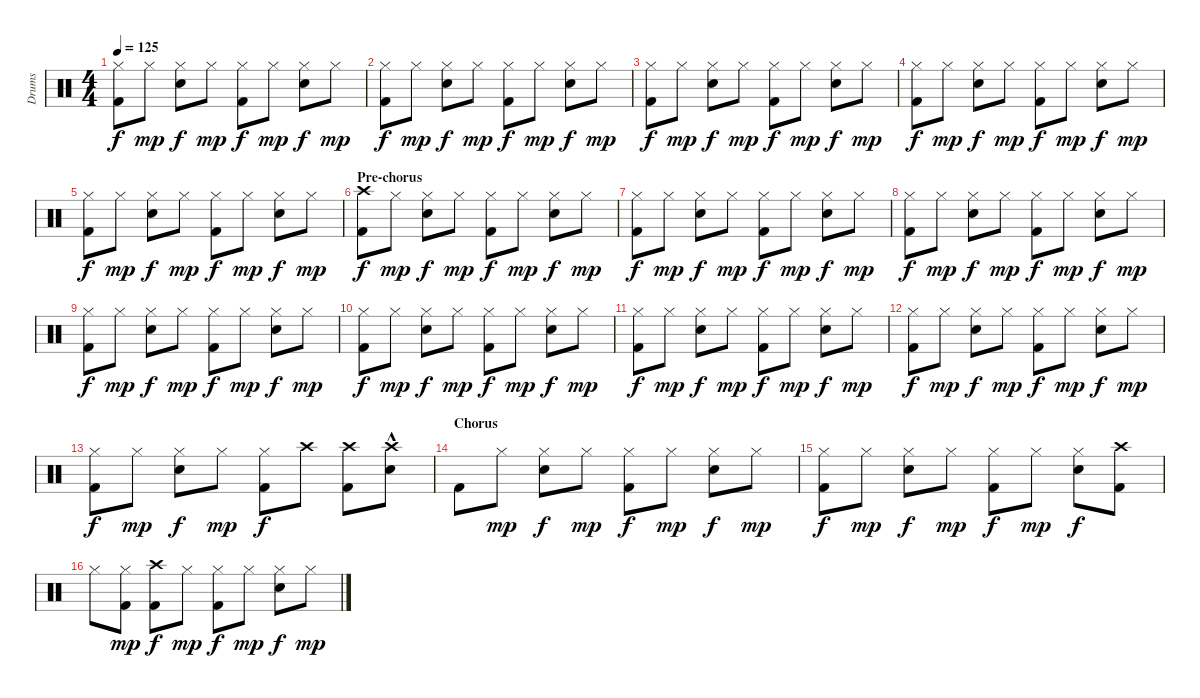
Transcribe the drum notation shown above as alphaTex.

\track ("Drums" "Drums") {instrument percussion}
\staff {score}
\articulation defaults
\ts (4 4)
\tempo 125
\clef neutral
\ks c
("Hi-Hat (closed)" "Kick (hit) 2").8{dy f} "Hi-Hat (closed)".8{dy mp} ("Hi-Hat (closed)" "Snare (hit) 2").8{dy f} "Hi-Hat (closed)".8{dy mp} ("Hi-Hat (closed)" "Kick (hit) 2").8{dy f} "Hi-Hat (closed)".8{dy mp} ("Hi-Hat (closed)" "Snare (hit) 2").8{dy f} "Hi-Hat (closed)".8{dy mp} |
("Hi-Hat (closed)" "Kick (hit) 2").8{dy f} "Hi-Hat (closed)".8{dy mp} ("Hi-Hat (closed)" "Snare (hit) 2").8{dy f} "Hi-Hat (closed)".8{dy mp} ("Hi-Hat (closed)" "Kick (hit) 2").8{dy f} "Hi-Hat (closed)".8{dy mp} ("Hi-Hat (closed)" "Snare (hit) 2").8{dy f} "Hi-Hat (closed)".8{dy mp} |
("Hi-Hat (closed)" "Kick (hit) 2").8{dy f} "Hi-Hat (closed)".8{dy mp} ("Hi-Hat (closed)" "Snare (hit) 2").8{dy f} "Hi-Hat (closed)".8{dy mp} ("Hi-Hat (closed)" "Kick (hit) 2").8{dy f} "Hi-Hat (closed)".8{dy mp} ("Hi-Hat (closed)" "Snare (hit) 2").8{dy f} "Hi-Hat (closed)".8{dy mp} |
("Hi-Hat (closed)" "Kick (hit) 2").8{dy f} "Hi-Hat (closed)".8{dy mp} ("Hi-Hat (closed)" "Snare (hit) 2").8{dy f} "Hi-Hat (closed)".8{dy mp} ("Hi-Hat (closed)" "Kick (hit) 2").8{dy f} "Hi-Hat (closed)".8{dy mp} ("Hi-Hat (closed)" "Snare (hit) 2").8{dy f} "Hi-Hat (closed)".8{dy mp} |
("Hi-Hat (closed)" "Kick (hit) 2").8{dy f} "Hi-Hat (closed)".8{dy mp} ("Hi-Hat (closed)" "Snare (hit) 2").8{dy f} "Hi-Hat (closed)".8{dy mp} ("Hi-Hat (closed)" "Kick (hit) 2").8{dy f} "Hi-Hat (closed)".8{dy mp} ("Hi-Hat (closed)" "Snare (hit) 2").8{dy f} "Hi-Hat (closed)".8{dy mp} |
\section ("" "Pre-chorus")
("Crash high (hit)" "Kick (hit) 2").8{dy f} "Hi-Hat (closed)".8{dy mp} ("Hi-Hat (closed)" "Snare (hit) 2").8{dy f} "Hi-Hat (closed)".8{dy mp} ("Hi-Hat (closed)" "Kick (hit) 2").8{dy f} "Hi-Hat (closed)".8{dy mp} ("Hi-Hat (closed)" "Snare (hit) 2").8{dy f} "Hi-Hat (closed)".8{dy mp} |
("Hi-Hat (closed)" "Kick (hit) 2").8{dy f} "Hi-Hat (closed)".8{dy mp} ("Hi-Hat (closed)" "Snare (hit) 2").8{dy f} "Hi-Hat (closed)".8{dy mp} ("Hi-Hat (closed)" "Kick (hit) 2").8{dy f} "Hi-Hat (closed)".8{dy mp} ("Hi-Hat (closed)" "Snare (hit) 2").8{dy f} "Hi-Hat (closed)".8{dy mp} |
("Hi-Hat (closed)" "Kick (hit) 2").8{dy f} "Hi-Hat (closed)".8{dy mp} ("Hi-Hat (closed)" "Snare (hit) 2").8{dy f} "Hi-Hat (closed)".8{dy mp} ("Hi-Hat (closed)" "Kick (hit) 2").8{dy f} "Hi-Hat (closed)".8{dy mp} ("Hi-Hat (closed)" "Snare (hit) 2").8{dy f} "Hi-Hat (closed)".8{dy mp} |
("Hi-Hat (closed)" "Kick (hit) 2").8{dy f} "Hi-Hat (closed)".8{dy mp} ("Hi-Hat (closed)" "Snare (hit) 2").8{dy f} "Hi-Hat (closed)".8{dy mp} ("Hi-Hat (closed)" "Kick (hit) 2").8{dy f} "Hi-Hat (closed)".8{dy mp} ("Hi-Hat (closed)" "Snare (hit) 2").8{dy f} "Hi-Hat (closed)".8{dy mp} |
("Hi-Hat (closed)" "Kick (hit) 2").8{dy f} "Hi-Hat (closed)".8{dy mp} ("Hi-Hat (closed)" "Snare (hit) 2").8{dy f} "Hi-Hat (closed)".8{dy mp} ("Hi-Hat (closed)" "Kick (hit) 2").8{dy f} "Hi-Hat (closed)".8{dy mp} ("Hi-Hat (closed)" "Snare (hit) 2").8{dy f} "Hi-Hat (closed)".8{dy mp} |
("Hi-Hat (closed)" "Kick (hit) 2").8{dy f} "Hi-Hat (closed)".8{dy mp} ("Hi-Hat (closed)" "Snare (hit) 2").8{dy f} "Hi-Hat (closed)".8{dy mp} ("Hi-Hat (closed)" "Kick (hit) 2").8{dy f} "Hi-Hat (closed)".8{dy mp} ("Hi-Hat (closed)" "Snare (hit) 2").8{dy f} "Hi-Hat (closed)".8{dy mp} |
("Hi-Hat (closed)" "Kick (hit) 2").8{dy f} "Hi-Hat (closed)".8{dy mp} ("Hi-Hat (closed)" "Snare (hit) 2").8{dy f} "Hi-Hat (closed)".8{dy mp} ("Hi-Hat (closed)" "Kick (hit) 2").8{dy f} "Hi-Hat (closed)".8{dy mp} ("Hi-Hat (closed)" "Snare (hit) 2").8{dy f} "Hi-Hat (closed)".8{dy mp} |
("Hi-Hat (closed)" "Kick (hit) 2").8{dy f} "Hi-Hat (closed)".8{dy mp} ("Hi-Hat (closed)" "Snare (hit) 2").8{dy f} "Hi-Hat (closed)".8{dy mp} ("Hi-Hat (closed)" "Kick (hit) 2").8{dy f} "Crash high (hit)".8 ("Crash high (hit)" "Kick (hit) 2").8 ("Crash high (hit)"{hac} "Snare (hit) 2").8 |
\section ("" "Chorus")
"Kick (hit) 2".8 "Hi-Hat (closed)".8{dy mp} ("Hi-Hat (closed)" "Snare (hit) 2").8{dy f} "Hi-Hat (closed)".8{dy mp} ("Hi-Hat (closed)" "Kick (hit) 2").8{dy f} "Hi-Hat (closed)".8{dy mp} ("Hi-Hat (closed)" "Snare (hit) 2").8{dy f} "Hi-Hat (closed)".8{dy mp} |
("Hi-Hat (closed)" "Kick (hit) 2").8{dy f} "Hi-Hat (closed)".8{dy mp} ("Hi-Hat (closed)" "Snare (hit) 2").8{dy f} "Hi-Hat (closed)".8{dy mp} ("Hi-Hat (closed)" "Kick (hit) 2").8{dy f} "Hi-Hat (closed)".8{dy mp} ("Hi-Hat (closed)" "Snare (hit) 2").8{dy f} ("Crash high (hit)" "Kick (hit) 2").8 |
"Hi-Hat (closed)".8 ("Hi-Hat (closed)" "Kick (hit) 2").8{dy mp} ("Crash high (hit)" "Kick (hit) 2").8{dy f} "Hi-Hat (closed)".8{dy mp} ("Hi-Hat (closed)" "Kick (hit) 2").8{dy f} "Hi-Hat (closed)".8{dy mp} ("Hi-Hat (closed)" "Snare (hit) 2").8{dy f} "Hi-Hat (closed)".8{dy mp}
